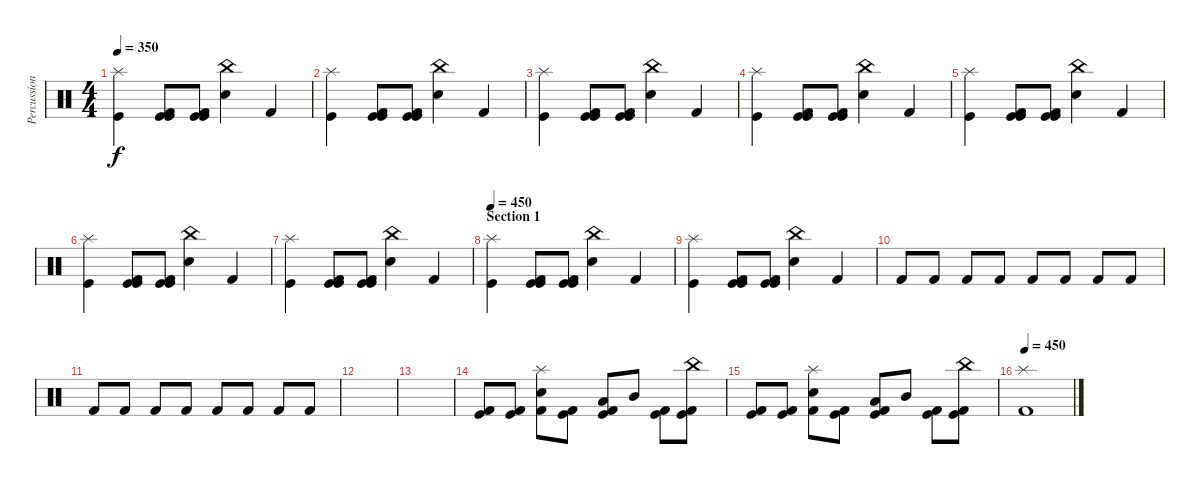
\track ("Percussions" "Percussion") {instrument percussion}
\staff {score}
\articulation defaults
\ts (4 4)
\tempo 350
\clef neutral
\ks c
("Splash (hit)" "Kick (hit)").4{dy f} ("Kick (hit) 2" "Kick (hit)" "Kick (hit)").8 ("Kick (hit) 2" "Kick (hit)" "Kick (hit)").8 ("China (hit)" "Snare (hit) 2").4 "Kick (hit) 2".4 |
("Splash (hit)" "Kick (hit)").4 ("Kick (hit) 2" "Kick (hit)" "Kick (hit)").8 ("Kick (hit) 2" "Kick (hit)" "Kick (hit)").8 ("China (hit)" "Snare (hit) 2").4 "Kick (hit) 2".4 |
("Splash (hit)" "Kick (hit)").4 ("Kick (hit) 2" "Kick (hit)" "Kick (hit)").8 ("Kick (hit) 2" "Kick (hit)" "Kick (hit)").8 ("China (hit)" "Snare (hit) 2").4 "Kick (hit) 2".4 |
("Splash (hit)" "Kick (hit)").4 ("Kick (hit) 2" "Kick (hit)" "Kick (hit)").8 ("Kick (hit) 2" "Kick (hit)" "Kick (hit)").8 ("China (hit)" "Snare (hit) 2").4 "Kick (hit) 2".4 |
("Splash (hit)" "Kick (hit)").4 ("Kick (hit) 2" "Kick (hit)" "Kick (hit)").8 ("Kick (hit) 2" "Kick (hit)" "Kick (hit)").8 ("China (hit)" "Snare (hit) 2").4 "Kick (hit) 2".4 |
("Splash (hit)" "Kick (hit)").4 ("Kick (hit) 2" "Kick (hit)" "Kick (hit)").8 ("Kick (hit) 2" "Kick (hit)" "Kick (hit)").8 ("China (hit)" "Snare (hit) 2").4 "Kick (hit) 2".4 |
("Splash (hit)" "Kick (hit)").4 ("Kick (hit) 2" "Kick (hit)" "Kick (hit)").8 ("Kick (hit) 2" "Kick (hit)" "Kick (hit)").8 ("China (hit)" "Snare (hit) 2").4 "Kick (hit) 2".4 |
\section ("" "Section 1")
\tempo 450
("Splash (hit)" "Kick (hit)").4 ("Kick (hit) 2" "Kick (hit)" "Kick (hit)").8 ("Kick (hit) 2" "Kick (hit)" "Kick (hit)").8 ("China (hit)" "Snare (hit) 2").4 "Kick (hit) 2".4 |
("Splash (hit)" "Kick (hit)").4 ("Kick (hit) 2" "Kick (hit)" "Kick (hit)").8 ("Kick (hit) 2" "Kick (hit)" "Kick (hit)").8 ("China (hit)" "Snare (hit) 2").4 "Kick (hit) 2".4 |
"Kick (hit) 2".8 "Kick (hit) 2".8 "Kick (hit) 2".8 "Kick (hit) 2".8 "Kick (hit) 2".8 "Kick (hit) 2".8 "Kick (hit) 2".8 "Kick (hit) 2".8 |
"Kick (hit) 2".8 "Kick (hit) 2".8 "Kick (hit) 2".8 "Kick (hit) 2".8 "Kick (hit) 2".8 "Kick (hit) 2".8 "Kick (hit) 2".8 "Kick (hit) 2".8 |
|
|
("Kick (hit)" "Kick (hit) 2").8 ("Kick (hit)" "Kick (hit) 2").8 ("Snare (hit) 2" "Splash (hit)" "Kick (hit) 2").8 ("Kick (hit)" "Kick (hit) 2").8 ("Kick (hit)" "Low Tom (hit)" "Kick (hit) 2").8 "Mid Tom (hit)".8 ("Kick (hit)" "Kick (hit) 2").8 ("Kick (hit)" "Kick (hit) 2" "China (hit)").8 |
("Kick (hit)" "Kick (hit) 2").8 ("Kick (hit)" "Kick (hit) 2").8 ("Snare (hit) 2" "Splash (hit)" "Kick (hit) 2").8 ("Kick (hit)" "Kick (hit) 2").8 ("Kick (hit)" "Low Tom (hit)" "Kick (hit) 2").8 "Mid Tom (hit)".8 ("Kick (hit)" "Kick (hit) 2").8 ("Kick (hit)" "Kick (hit) 2" "China (hit)").8 |
\tempo 450
("Splash (hit)" "Kick (hit) 2").1
